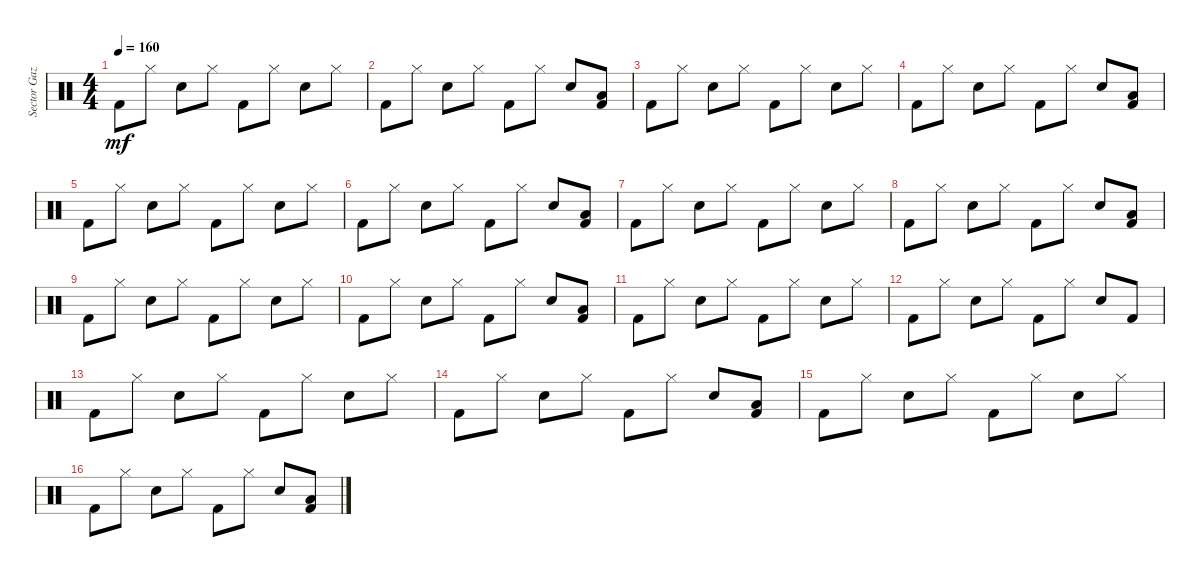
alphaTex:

\track ("Sector Gaza" "Sector Gaz") {instrument percussion}
\staff {score}
\articulation defaults
\ts (4 4)
\tempo 160
\clef neutral
\ks c "Kick (hit) 2".8{dy mf} "Hi-Hat (closed)".8 "Snare (hit) 2".8 "Hi-Hat (closed)".8 "Kick (hit) 2".8 "Hi-Hat (closed)".8 "Snare (hit) 2".8 "Hi-Hat (closed)".8
|
"Kick (hit) 2".8 "Hi-Hat (closed)".8 "Snare (hit) 2".8 "Hi-Hat (closed)".8 "Kick (hit) 2".8 "Hi-Hat (closed)".8 "Snare (hit) 2".8 ("Kick (hit) 2" "Low Floor Tom (hit)").8 |
"Kick (hit) 2".8 "Hi-Hat (closed)".8 "Snare (hit) 2".8 "Hi-Hat (closed)".8 "Kick (hit) 2".8 "Hi-Hat (closed)".8 "Snare (hit) 2".8 "Hi-Hat (closed)".8 |
"Kick (hit) 2".8 "Hi-Hat (closed)".8 "Snare (hit) 2".8 "Hi-Hat (closed)".8 "Kick (hit) 2".8 "Hi-Hat (closed)".8 "Snare (hit) 2".8 ("Kick (hit) 2" "Low Floor Tom (hit)").8 |
"Kick (hit) 2".8 "Hi-Hat (closed)".8 "Snare (hit) 2".8 "Hi-Hat (closed)".8 "Kick (hit) 2".8 "Hi-Hat (closed)".8 "Snare (hit) 2".8 "Hi-Hat (closed)".8 |
"Kick (hit) 2".8 "Hi-Hat (closed)".8 "Snare (hit) 2".8 "Hi-Hat (closed)".8 "Kick (hit) 2".8 "Hi-Hat (closed)".8 "Snare (hit) 2".8 ("Kick (hit) 2" "Low Floor Tom (hit)").8 |
"Kick (hit) 2".8 "Hi-Hat (closed)".8 "Snare (hit) 2".8 "Hi-Hat (closed)".8 "Kick (hit) 2".8 "Hi-Hat (closed)".8 "Snare (hit) 2".8 "Hi-Hat (closed)".8 |
"Kick (hit) 2".8 "Hi-Hat (closed)".8 "Snare (hit) 2".8 "Hi-Hat (closed)".8 "Kick (hit) 2".8 "Hi-Hat (closed)".8 "Snare (hit) 2".8 ("Kick (hit) 2" "Low Floor Tom (hit)").8 |
"Kick (hit) 2".8 "Hi-Hat (closed)".8 "Snare (hit) 2".8 "Hi-Hat (closed)".8 "Kick (hit) 2".8 "Hi-Hat (closed)".8 "Snare (hit) 2".8 "Hi-Hat (closed)".8 |
"Kick (hit) 2".8 "Hi-Hat (closed)".8 "Snare (hit) 2".8 "Hi-Hat (closed)".8 "Kick (hit) 2".8 "Hi-Hat (closed)".8 "Snare (hit) 2".8 ("Low Floor Tom (hit)" "Kick (hit) 2").8 |
"Kick (hit) 2".8 "Hi-Hat (closed)".8 "Snare (hit) 2".8 "Hi-Hat (closed)".8 "Kick (hit) 2".8 "Hi-Hat (closed)".8 "Snare (hit) 2".8 "Hi-Hat (closed)".8 |
"Kick (hit) 2".8 "Hi-Hat (closed)".8 "Snare (hit) 2".8 "Hi-Hat (closed)".8 "Kick (hit) 2".8 "Hi-Hat (closed)".8 "Snare (hit) 2".8 "Kick (hit) 2".8 |
"Kick (hit) 2".8 "Hi-Hat (closed)".8 "Snare (hit) 2".8 "Hi-Hat (closed)".8 "Kick (hit) 2".8 "Hi-Hat (closed)".8 "Snare (hit) 2".8 "Hi-Hat (closed)".8 |
"Kick (hit) 2".8 "Hi-Hat (closed)".8 "Snare (hit) 2".8 "Hi-Hat (closed)".8 "Kick (hit) 2".8 "Hi-Hat (closed)".8 "Snare (hit) 2".8 ("Kick (hit) 2" "Low Floor Tom (hit)").8 |
"Kick (hit) 2".8 "Hi-Hat (closed)".8 "Snare (hit) 2".8 "Hi-Hat (closed)".8 "Kick (hit) 2".8 "Hi-Hat (closed)".8 "Snare (hit) 2".8 "Hi-Hat (closed)".8 |
"Kick (hit) 2".8 "Hi-Hat (closed)".8 "Snare (hit) 2".8 "Hi-Hat (closed)".8 "Kick (hit) 2".8 "Hi-Hat (closed)".8 "Snare (hit) 2".8 ("Kick (hit) 2" "Low Floor Tom (hit)").8
